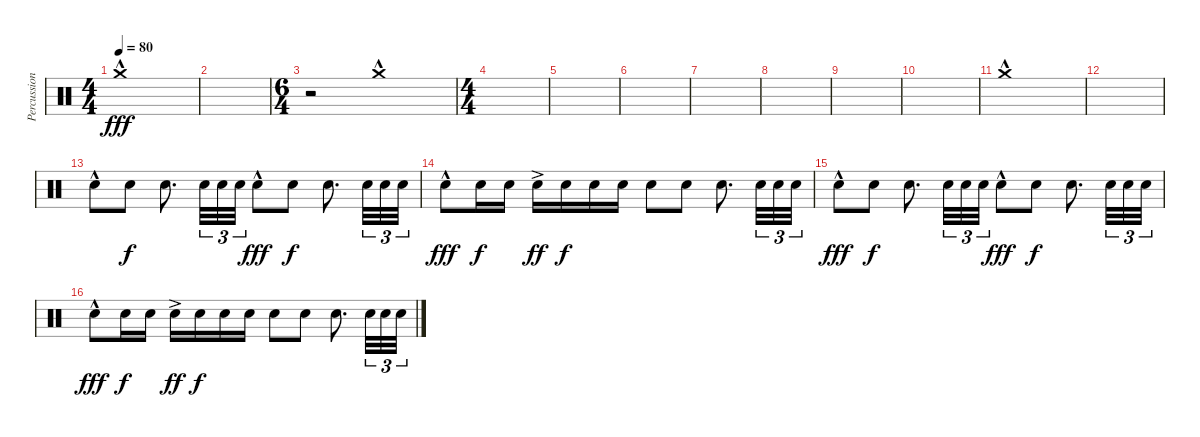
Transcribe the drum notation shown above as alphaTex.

\track ("Percussion" "Percussion") {instrument percussion}
\staff {score}
\articulation defaults
\ts (4 4)
\tempo 80
\clef neutral
\ks c "Crash medium (hit)"{hac}.1{dy fff}
|
|
\ts (6 4)
r.2 "Crash medium (hit)"{hac}.1 |
\ts (4 4)
|
|
|
|
|
|
|
"Crash medium (hit)"{hac}.1 |
|
"Snare (hit) 2"{hac}.8 "Snare (hit) 2".8{dy f} "Snare (hit) 2".8{d} "Snare (hit) 2".32{tu (3 2)} "Snare (hit) 2".32{tu (3 2)} "Snare (hit) 2".32{tu (3 2)} "Snare (hit) 2"{hac}.8{dy fff} "Snare (hit) 2".8{dy f} "Snare (hit) 2".8{d} "Snare (hit) 2".32{tu (3 2)} "Snare (hit) 2".32{tu (3 2)} "Snare (hit) 2".32{tu (3 2)} |
"Snare (hit) 2"{hac}.8{dy fff} "Snare (hit) 2".16{dy f} "Snare (hit) 2".16 "Snare (hit) 2"{ac}.16{dy ff} "Snare (hit) 2".16{dy f} "Snare (hit) 2".16 "Snare (hit) 2".16 "Snare (hit) 2".8 "Snare (hit) 2".8 "Snare (hit) 2".8{d} "Snare (hit) 2".32{tu (3 2)} "Snare (hit) 2".32{tu (3 2)} "Snare (hit) 2".32{tu (3 2)} |
"Snare (hit) 2"{hac}.8{dy fff} "Snare (hit) 2".8{dy f} "Snare (hit) 2".8{d} "Snare (hit) 2".32{tu (3 2)} "Snare (hit) 2".32{tu (3 2)} "Snare (hit) 2".32{tu (3 2)} "Snare (hit) 2"{hac}.8{dy fff} "Snare (hit) 2".8{dy f} "Snare (hit) 2".8{d} "Snare (hit) 2".32{tu (3 2)} "Snare (hit) 2".32{tu (3 2)} "Snare (hit) 2".32{tu (3 2)} |
"Snare (hit) 2"{hac}.8{dy fff} "Snare (hit) 2".16{dy f} "Snare (hit) 2".16 "Snare (hit) 2"{ac}.16{dy ff} "Snare (hit) 2".16{dy f} "Snare (hit) 2".16 "Snare (hit) 2".16 "Snare (hit) 2".8 "Snare (hit) 2".8 "Snare (hit) 2".8{d} "Snare (hit) 2".32{tu (3 2)} "Snare (hit) 2".32{tu (3 2)} "Snare (hit) 2".32{tu (3 2)}
